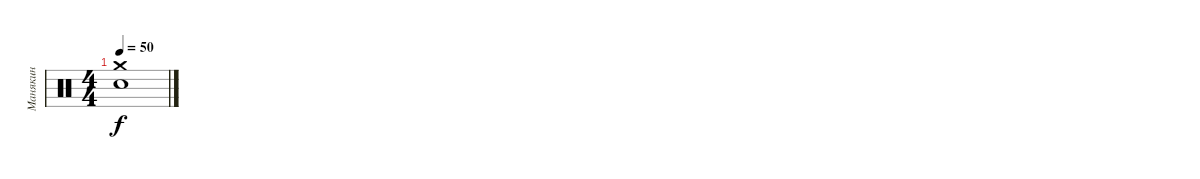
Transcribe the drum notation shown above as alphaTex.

\track ("Манякин" "Манякин") {instrument percussion}
\staff {score}
\articulation defaults
\ts (4 4)
\tempo 50
\clef neutral
\ks c
("Crash medium (hit)" "Electric Snare (hit)").1{dy f volume 16}
